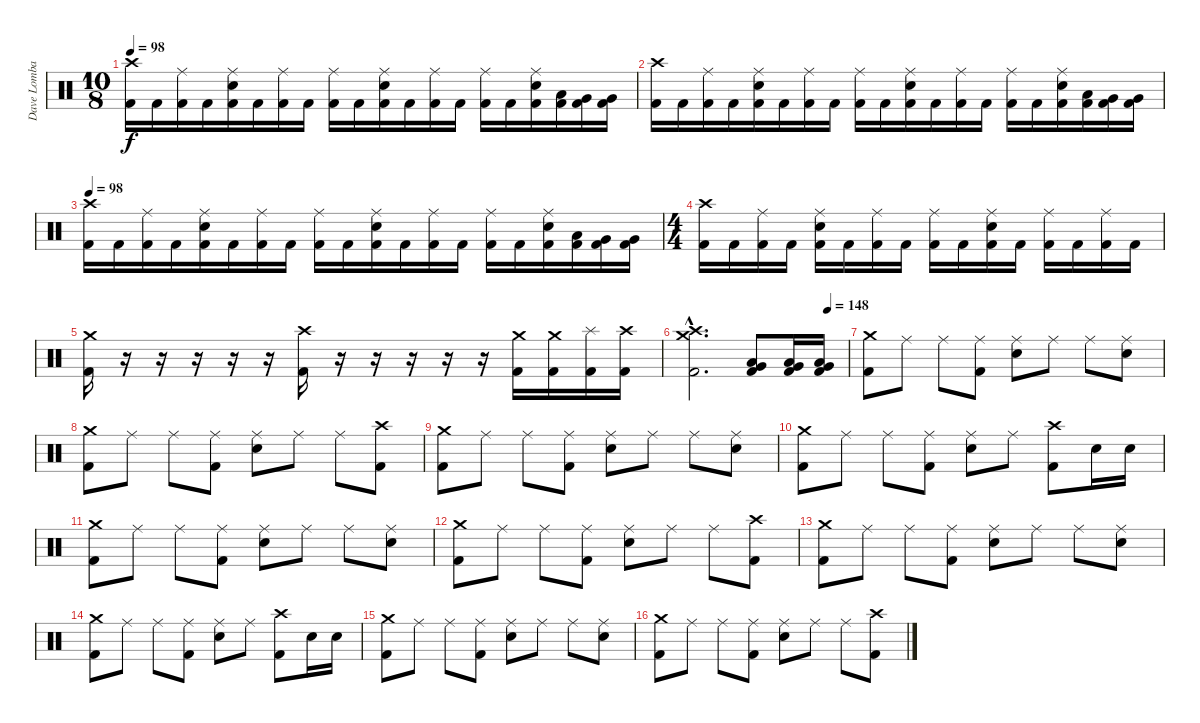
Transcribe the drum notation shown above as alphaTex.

\track ("Dave Lombardo" "Dave Lomba") {instrument percussion}
\staff {score}
\articulation defaults
\ts (10 8)
\tempo 98
\clef neutral
\ks c
("Crash high (hit)" "Kick (hit) 2").16{dy f} "Kick (hit) 2".16 ("Ride (middle)" "Kick (hit) 2").16 "Kick (hit) 2".16 ("Electric Snare (hit)" "Ride (middle)" "Kick (hit) 2").16 "Kick (hit) 2".16 ("Ride (middle)" "Kick (hit) 2").16 "Kick (hit) 2".16 ("Ride (middle)" "Kick (hit) 2").16 "Kick (hit) 2".16 ("Electric Snare (hit)" "Ride (middle)" "Kick (hit) 2").16 "Kick (hit) 2".16 ("Ride (middle)" "Kick (hit) 2").16 "Kick (hit) 2".16 ("Ride (middle)" "Kick (hit) 2").16 "Kick (hit) 2".16 ("Electric Snare (hit)" "Ride (middle)" "Kick (hit) 2").16 ("Low Tom (hit)" "Kick (hit) 2").16 ("Very Low Tom (hit)" "Kick (hit) 2").16 ("Very Low Tom (hit)" "Kick (hit) 2").16 |
("Crash high (hit)" "Kick (hit) 2").16 "Kick (hit) 2".16 ("Ride (middle)" "Kick (hit) 2").16 "Kick (hit) 2".16 ("Electric Snare (hit)" "Ride (middle)" "Kick (hit) 2").16 "Kick (hit) 2".16 ("Ride (middle)" "Kick (hit) 2").16 "Kick (hit) 2".16 ("Ride (middle)" "Kick (hit) 2").16 "Kick (hit) 2".16 ("Electric Snare (hit)" "Ride (middle)" "Kick (hit) 2").16 "Kick (hit) 2".16 ("Ride (middle)" "Kick (hit) 2").16 "Kick (hit) 2".16 ("Ride (middle)" "Kick (hit) 2").16 "Kick (hit) 2".16 ("Electric Snare (hit)" "Ride (middle)" "Kick (hit) 2").16 ("Low Tom (hit)" "Kick (hit) 2").16 ("Very Low Tom (hit)" "Kick (hit) 2").16 ("Very Low Tom (hit)" "Kick (hit) 2").16 |
\tempo 98
("Crash high (hit)" "Kick (hit) 2").16 "Kick (hit) 2".16 ("Ride (middle)" "Kick (hit) 2").16 "Kick (hit) 2".16 ("Electric Snare (hit)" "Ride (middle)" "Kick (hit) 2").16 "Kick (hit) 2".16 ("Ride (middle)" "Kick (hit) 2").16 "Kick (hit) 2".16 ("Ride (middle)" "Kick (hit) 2").16 "Kick (hit) 2".16 ("Electric Snare (hit)" "Ride (middle)" "Kick (hit) 2").16 "Kick (hit) 2".16 ("Ride (middle)" "Kick (hit) 2").16 "Kick (hit) 2".16 ("Ride (middle)" "Kick (hit) 2").16 "Kick (hit) 2".16 ("Electric Snare (hit)" "Ride (middle)" "Kick (hit) 2").16 ("Low Tom (hit)" "Kick (hit) 2").16 ("Very Low Tom (hit)" "Kick (hit) 2").16 ("Very Low Tom (hit)" "Kick (hit) 2").16 |
\ts (4 4)
("Crash high (hit)" "Kick (hit) 2").16 "Kick (hit) 2".16 ("Ride (middle)" "Kick (hit) 2").16 "Kick (hit) 2".16 ("Electric Snare (hit)" "Ride (middle)" "Kick (hit) 2").16 "Kick (hit) 2".16 ("Ride (middle)" "Kick (hit) 2").16 "Kick (hit) 2".16 ("Ride (middle)" "Kick (hit) 2").16 "Kick (hit) 2".16 ("Electric Snare (hit)" "Ride (middle)" "Kick (hit) 2").16 "Kick (hit) 2".16 ("Ride (middle)" "Kick (hit) 2").16 "Kick (hit) 2".16 ("Ride (middle)" "Kick (hit) 2").16 "Kick (hit) 2".16 |
("Kick (hit) 2" "Crash medium (hit)").16 r.16 r.16 r.16 r.16 r.16 ("Crash high (hit)" "Kick (hit) 2").16 r.16 r.16 r.16 r.16 r.16 ("Crash medium (hit)" "Kick (hit) 2").16 ("Crash medium (hit)" "Kick (hit) 2").16 ("Kick (hit) 2" "Splash (hit)").16 ("Crash high (hit)" "Kick (hit) 2").16 |
\tempo (148 0.875)
("Crash high (hit)"{hac} "Crash medium (hit)"{hac} "Kick (hit) 2"{hac}).2{d} ("Kick (hit) 2" "Low Floor Tom (hit)" "Very Low Tom (hit)").8 ("Kick (hit) 2" "Low Floor Tom (hit)" "Very Low Tom (hit)").16 ("Kick (hit) 2" "Low Floor Tom (hit)" "Very Low Tom (hit)").16 |
("Crash medium (hit)" "Kick (hit) 2").8 "Ride (middle)".8 "Ride (middle)".8 ("Kick (hit) 2" "Ride (middle)").8 ("Electric Snare (hit)" "Ride (middle)").8 "Ride (middle)".8 "Ride (middle)".8 ("Electric Snare (hit)" "Ride (middle)").8 |
("Crash medium (hit)" "Kick (hit) 2").8 "Ride (middle)".8 "Ride (middle)".8 ("Kick (hit) 2" "Ride (middle)").8 ("Electric Snare (hit)" "Ride (middle)").8 "Ride (middle)".8 "Ride (middle)".8 ("Kick (hit) 2" "Crash high (hit)").8 |
("Crash medium (hit)" "Kick (hit) 2").8 "Ride (middle)".8 "Ride (middle)".8 ("Kick (hit) 2" "Ride (middle)").8 ("Electric Snare (hit)" "Ride (middle)").8 "Ride (middle)".8 "Ride (middle)".8 ("Electric Snare (hit)" "Ride (middle)").8 |
("Crash medium (hit)" "Kick (hit) 2").8 "Ride (middle)".8 "Ride (middle)".8 ("Kick (hit) 2" "Ride (middle)").8 ("Electric Snare (hit)" "Ride (middle)").8 "Ride (middle)".8 ("Crash high (hit)" "Kick (hit) 2").8 "Electric Snare (hit)".16 "Electric Snare (hit)".16 |
("Crash medium (hit)" "Kick (hit) 2").8 "Ride (middle)".8 "Ride (middle)".8 ("Kick (hit) 2" "Ride (middle)").8 ("Electric Snare (hit)" "Ride (middle)").8 "Ride (middle)".8 "Ride (middle)".8 ("Electric Snare (hit)" "Ride (middle)").8 |
("Crash medium (hit)" "Kick (hit) 2").8 "Ride (middle)".8 "Ride (middle)".8 ("Kick (hit) 2" "Ride (middle)").8 ("Electric Snare (hit)" "Ride (middle)").8 "Ride (middle)".8 "Ride (middle)".8 ("Kick (hit) 2" "Crash high (hit)").8 |
("Crash medium (hit)" "Kick (hit) 2").8 "Ride (middle)".8 "Ride (middle)".8 ("Kick (hit) 2" "Ride (middle)").8 ("Electric Snare (hit)" "Ride (middle)").8 "Ride (middle)".8 "Ride (middle)".8 ("Electric Snare (hit)" "Ride (middle)").8 |
("Crash medium (hit)" "Kick (hit) 2").8 "Ride (middle)".8 "Ride (middle)".8 ("Kick (hit) 2" "Ride (middle)").8 ("Electric Snare (hit)" "Ride (middle)").8 "Ride (middle)".8 ("Crash high (hit)" "Kick (hit) 2").8 "Electric Snare (hit)".16 "Electric Snare (hit)".16 |
("Crash medium (hit)" "Kick (hit) 2").8 "Ride (middle)".8 "Ride (middle)".8 ("Kick (hit) 2" "Ride (middle)").8 ("Electric Snare (hit)" "Ride (middle)").8 "Ride (middle)".8 "Ride (middle)".8 ("Electric Snare (hit)" "Ride (middle)").8 |
("Crash medium (hit)" "Kick (hit) 2").8 "Ride (middle)".8 "Ride (middle)".8 ("Kick (hit) 2" "Ride (middle)").8 ("Electric Snare (hit)" "Ride (middle)").8 "Ride (middle)".8 "Ride (middle)".8 ("Kick (hit) 2" "Crash high (hit)").8
